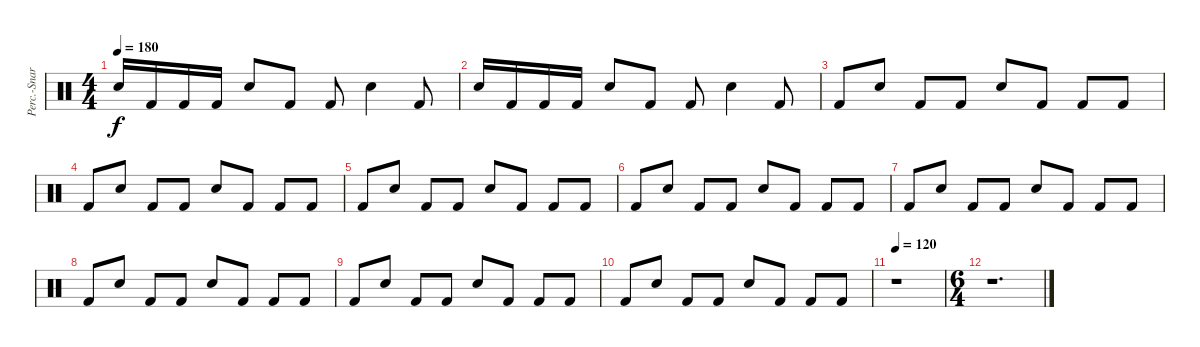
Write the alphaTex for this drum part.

\track ("Perc.-Snare/Kick" "Perc.-Snar") {instrument percussion}
\staff {score}
\articulation defaults
\ts (4 4)
\tempo 180
\clef neutral
\ks c "Snare (hit) 2".16{dy f} "Kick (hit) 2".16 "Kick (hit) 2".16 "Kick (hit) 2".16 "Snare (hit) 2".8 "Kick (hit) 2".8 "Kick (hit) 2".8 "Snare (hit) 2".4 "Kick (hit) 2".8
|
"Snare (hit) 2".16 "Kick (hit) 2".16 "Kick (hit) 2".16 "Kick (hit) 2".16 "Snare (hit) 2".8 "Kick (hit) 2".8 "Kick (hit) 2".8 "Snare (hit) 2".4 "Kick (hit) 2".8 |
"Kick (hit) 2".8 "Snare (hit) 2".8 "Kick (hit) 2".8 "Kick (hit) 2".8 "Snare (hit) 2".8 "Kick (hit) 2".8 "Kick (hit) 2".8 "Kick (hit) 2".8 |
"Kick (hit) 2".8 "Snare (hit) 2".8 "Kick (hit) 2".8 "Kick (hit) 2".8 "Snare (hit) 2".8 "Kick (hit) 2".8 "Kick (hit) 2".8 "Kick (hit) 2".8 |
"Kick (hit) 2".8 "Snare (hit) 2".8 "Kick (hit) 2".8 "Kick (hit) 2".8 "Snare (hit) 2".8 "Kick (hit) 2".8 "Kick (hit) 2".8 "Kick (hit) 2".8 |
"Kick (hit) 2".8 "Snare (hit) 2".8 "Kick (hit) 2".8 "Kick (hit) 2".8 "Snare (hit) 2".8 "Kick (hit) 2".8 "Kick (hit) 2".8 "Kick (hit) 2".8 |
"Kick (hit) 2".8 "Snare (hit) 2".8 "Kick (hit) 2".8 "Kick (hit) 2".8 "Snare (hit) 2".8 "Kick (hit) 2".8 "Kick (hit) 2".8 "Kick (hit) 2".8 |
"Kick (hit) 2".8 "Snare (hit) 2".8 "Kick (hit) 2".8 "Kick (hit) 2".8 "Snare (hit) 2".8 "Kick (hit) 2".8 "Kick (hit) 2".8 "Kick (hit) 2".8 |
"Kick (hit) 2".8 "Snare (hit) 2".8 "Kick (hit) 2".8 "Kick (hit) 2".8 "Snare (hit) 2".8 "Kick (hit) 2".8 "Kick (hit) 2".8 "Kick (hit) 2".8 |
"Kick (hit) 2".8 "Snare (hit) 2".8 "Kick (hit) 2".8 "Kick (hit) 2".8 "Snare (hit) 2".8 "Kick (hit) 2".8 "Kick (hit) 2".8 "Kick (hit) 2".8 |
\tempo 120
r.1 |
\ts (6 4)
r.1{d}
